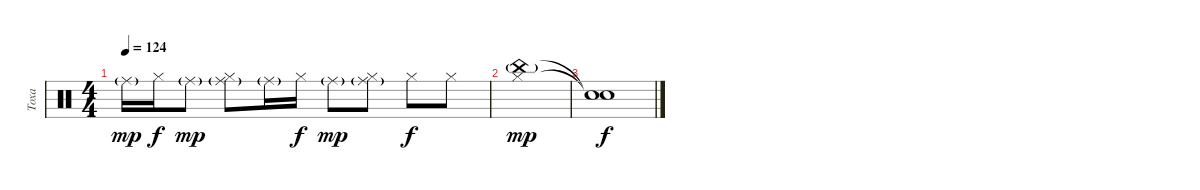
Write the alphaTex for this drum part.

\track ("Тоха" "Тоха") {instrument percussion}
\staff {score}
\articulation defaults
\ts (4 4)
\tempo 124
\clef neutral
\ks c "Ride (middle)"{g}.16{dy mp} "Hi-Hat (closed)".16{dy f} "Ride (middle)"{g}.8{dy mp}
("Hi-Hat (closed)" "Ride (middle)"{g}).8 "Ride (middle)"{g}.16 "Hi-Hat (closed)".16{dy f} "Ride (middle)"{g}.8{dy mp} ("Hi-Hat (closed)" "Ride (middle)"{g}).8 "Hi-Hat (closed)".8{dy f} "Hi-Hat (closed)".8 |
("Hi-Hat (closed)" "China (hit)"{g}).1{dy mp} |
("Snare (hit)"{t} "Snare (hit)"{t}).1{dy f}
